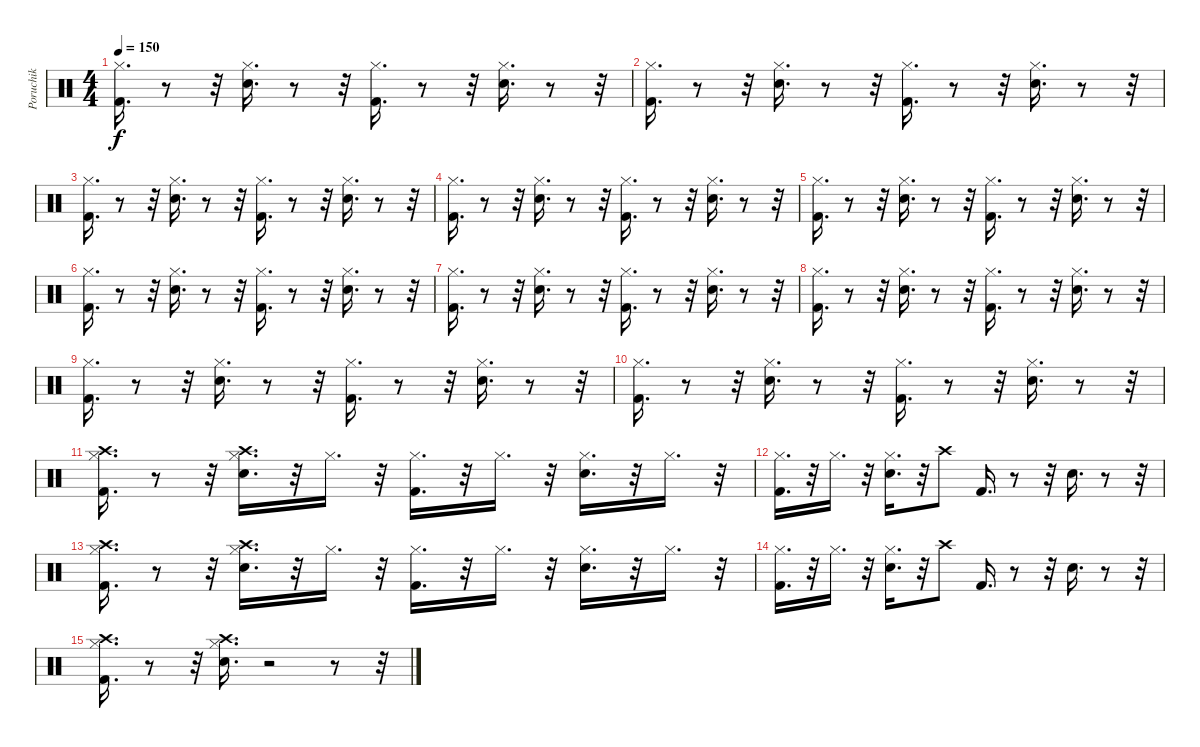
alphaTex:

\track ("Poruchik" "Poruchik") {instrument percussion}
\staff {score}
\articulation defaults
\ts (4 4)
\tempo 150
\clef neutral
\ks c
("Kick (hit) 2" "Hi-Hat (closed)").16{d dy f} r.8 r.32 ("Snare (hit) 2" "Hi-Hat (closed)").16{d} r.8 r.32 ("Kick (hit) 2" "Hi-Hat (closed)").16{d} r.8 r.32 ("Snare (hit) 2" "Hi-Hat (closed)").16{d} r.8 r.32 |
("Kick (hit) 2" "Hi-Hat (closed)").16{d} r.8 r.32 ("Snare (hit) 2" "Hi-Hat (closed)").16{d} r.8 r.32 ("Kick (hit) 2" "Hi-Hat (closed)").16{d} r.8 r.32 ("Snare (hit) 2" "Hi-Hat (closed)").16{d} r.8 r.32 |
("Kick (hit) 2" "Hi-Hat (closed)").16{d} r.8 r.32 ("Snare (hit) 2" "Hi-Hat (closed)").16{d} r.8 r.32 ("Kick (hit) 2" "Hi-Hat (closed)").16{d} r.8 r.32 ("Snare (hit) 2" "Hi-Hat (closed)").16{d} r.8 r.32 |
("Kick (hit) 2" "Hi-Hat (closed)").16{d} r.8 r.32 ("Snare (hit) 2" "Hi-Hat (closed)").16{d} r.8 r.32 ("Kick (hit) 2" "Hi-Hat (closed)").16{d} r.8 r.32 ("Snare (hit) 2" "Hi-Hat (closed)").16{d} r.8 r.32 |
("Kick (hit) 2" "Hi-Hat (closed)").16{d} r.8 r.32 ("Snare (hit) 2" "Hi-Hat (closed)").16{d} r.8 r.32 ("Kick (hit) 2" "Hi-Hat (closed)").16{d} r.8 r.32 ("Snare (hit) 2" "Hi-Hat (closed)").16{d} r.8 r.32 |
("Kick (hit) 2" "Hi-Hat (closed)").16{d} r.8 r.32 ("Snare (hit) 2" "Hi-Hat (closed)").16{d} r.8 r.32 ("Kick (hit) 2" "Hi-Hat (closed)").16{d} r.8 r.32 ("Snare (hit) 2" "Hi-Hat (closed)").16{d} r.8 r.32 |
("Kick (hit) 2" "Hi-Hat (closed)").16{d} r.8 r.32 ("Snare (hit) 2" "Hi-Hat (closed)").16{d} r.8 r.32 ("Kick (hit) 2" "Hi-Hat (closed)").16{d} r.8 r.32 ("Snare (hit) 2" "Hi-Hat (closed)").16{d} r.8 r.32 |
("Kick (hit) 2" "Hi-Hat (closed)").16{d} r.8 r.32 ("Snare (hit) 2" "Hi-Hat (closed)").16{d} r.8 r.32 ("Kick (hit) 2" "Hi-Hat (closed)").16{d} r.8 r.32 ("Snare (hit) 2" "Hi-Hat (closed)").16{d} r.8 r.32 |
("Kick (hit) 2" "Hi-Hat (closed)").16{d} r.8 r.32 ("Snare (hit) 2" "Hi-Hat (closed)").16{d} r.8 r.32 ("Kick (hit) 2" "Hi-Hat (closed)").16{d} r.8 r.32 ("Snare (hit) 2" "Hi-Hat (closed)").16{d} r.8 r.32 |
("Kick (hit) 2" "Hi-Hat (closed)").16{d} r.8 r.32 ("Snare (hit) 2" "Hi-Hat (closed)").16{d} r.8 r.32 ("Kick (hit) 2" "Hi-Hat (closed)").16{d} r.8 r.32 ("Snare (hit) 2" "Hi-Hat (closed)").16{d} r.8 r.32 |
("Crash high (hit)" "Kick (hit) 2" "Hi-Hat (closed)").16{d} r.8 r.32 ("Crash high (hit)" "Snare (hit) 2" "Hi-Hat (closed)").16{d} r.32 "Hi-Hat (closed)".16{d} r.32 ("Kick (hit) 2" "Hi-Hat (closed)").16{d} r.32 "Hi-Hat (closed)".16{d} r.32 ("Snare (hit) 2" "Hi-Hat (closed)").16{d} r.32 "Hi-Hat (closed)".16{d} r.32 |
("Kick (hit) 2" "Hi-Hat (closed)").16{d} r.32 "Hi-Hat (closed)".16{d} r.32 ("Snare (hit) 2" "Hi-Hat (closed)").16{d} r.32 "Crash high (hit)".8 "Kick (hit) 2".16{d} r.8 r.32 "Snare (hit) 2".16{d} r.8 r.32 |
("Crash high (hit)" "Kick (hit) 2" "Hi-Hat (closed)").16{d} r.8 r.32 ("Crash high (hit)" "Snare (hit) 2" "Hi-Hat (closed)").16{d} r.32 "Hi-Hat (closed)".16{d} r.32 ("Kick (hit) 2" "Hi-Hat (closed)").16{d} r.32 "Hi-Hat (closed)".16{d} r.32 ("Snare (hit) 2" "Hi-Hat (closed)").16{d} r.32 "Hi-Hat (closed)".16{d} r.32 |
("Kick (hit) 2" "Hi-Hat (closed)").16{d} r.32 "Hi-Hat (closed)".16{d} r.32 ("Snare (hit) 2" "Hi-Hat (closed)").16{d} r.32 "Crash high (hit)".8 "Kick (hit) 2".16{d} r.8 r.32 "Snare (hit) 2".16{d} r.8 r.32 |
("Crash high (hit)" "Kick (hit) 2" "Hi-Hat (closed)").16{d} r.8 r.32 ("Crash high (hit)" "Snare (hit) 2" "Hi-Hat (closed)").16{d} r.2 r.8 r.32
